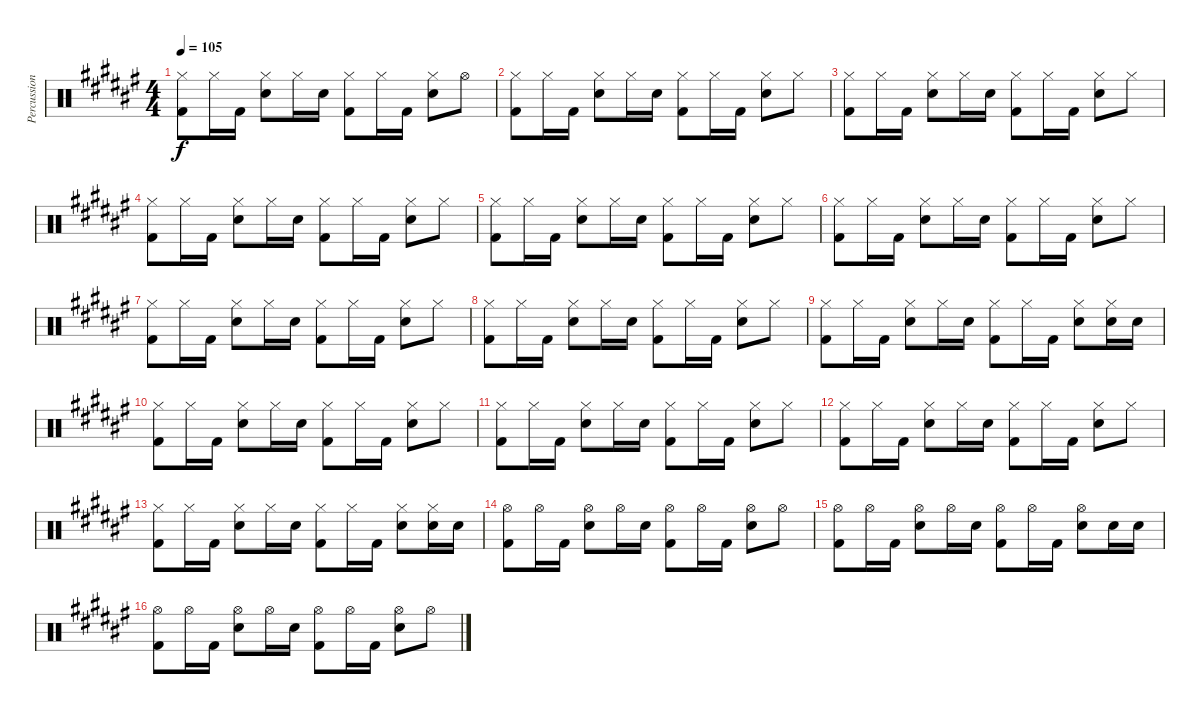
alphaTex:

\track ("Percussion" "Percussion") {instrument percussion}
\staff {score}
\articulation defaults
\ts (4 4)
\tempo 105
\clef neutral
\ks d#minor
("Kick (hit) 2" "Hi-Hat (closed)").8{dy f} "Hi-Hat (closed)".16 "Kick (hit) 2".16 ("Electric Snare (hit)" "Hi-Hat (closed)").8 "Hi-Hat (closed)".16 "Electric Snare (hit)".16 ("Kick (hit) 2" "Hi-Hat (closed)").8 "Hi-Hat (closed)".16 "Kick (hit) 2".16 ("Electric Snare (hit)" "Hi-Hat (closed)").8 "Hi-Hat (open)".8 |
("Kick (hit) 2" "Hi-Hat (closed)").8 "Hi-Hat (closed)".16 "Kick (hit) 2".16 ("Electric Snare (hit)" "Hi-Hat (closed)").8 "Hi-Hat (closed)".16 "Electric Snare (hit)".16 ("Kick (hit) 2" "Hi-Hat (closed)").8 "Hi-Hat (closed)".16 "Kick (hit) 2".16 ("Electric Snare (hit)" "Hi-Hat (closed)").8 "Hi-Hat (closed)".8 |
("Kick (hit) 2" "Hi-Hat (closed)").8 "Hi-Hat (closed)".16 "Kick (hit) 2".16 ("Electric Snare (hit)" "Hi-Hat (closed)").8 "Hi-Hat (closed)".16 "Electric Snare (hit)".16 ("Kick (hit) 2" "Hi-Hat (closed)").8 "Hi-Hat (closed)".16 "Kick (hit) 2".16 ("Electric Snare (hit)" "Hi-Hat (closed)").8 "Hi-Hat (closed)".8 |
("Kick (hit) 2" "Hi-Hat (closed)").8 "Hi-Hat (closed)".16 "Kick (hit) 2".16 ("Electric Snare (hit)" "Hi-Hat (closed)").8 "Hi-Hat (closed)".16 "Electric Snare (hit)".16 ("Kick (hit) 2" "Hi-Hat (closed)").8 "Hi-Hat (closed)".16 "Kick (hit) 2".16 ("Electric Snare (hit)" "Hi-Hat (closed)").8 "Hi-Hat (closed)".8 |
("Kick (hit) 2" "Hi-Hat (closed)").8 "Hi-Hat (closed)".16 "Kick (hit) 2".16 ("Electric Snare (hit)" "Hi-Hat (closed)").8 "Hi-Hat (closed)".16 "Electric Snare (hit)".16 ("Kick (hit) 2" "Hi-Hat (closed)").8 "Hi-Hat (closed)".16 "Kick (hit) 2".16 ("Electric Snare (hit)" "Hi-Hat (closed)").8 "Hi-Hat (closed)".8 |
("Kick (hit) 2" "Hi-Hat (closed)").8 "Hi-Hat (closed)".16 "Kick (hit) 2".16 ("Electric Snare (hit)" "Hi-Hat (closed)").8 "Hi-Hat (closed)".16 "Electric Snare (hit)".16 ("Kick (hit) 2" "Hi-Hat (closed)").8 "Hi-Hat (closed)".16 "Kick (hit) 2".16 ("Electric Snare (hit)" "Hi-Hat (closed)").8 "Hi-Hat (closed)".8 |
("Kick (hit) 2" "Hi-Hat (closed)").8 "Hi-Hat (closed)".16 "Kick (hit) 2".16 ("Electric Snare (hit)" "Hi-Hat (closed)").8 "Hi-Hat (closed)".16 "Electric Snare (hit)".16 ("Kick (hit) 2" "Hi-Hat (closed)").8 "Hi-Hat (closed)".16 "Kick (hit) 2".16 ("Electric Snare (hit)" "Hi-Hat (closed)").8 "Hi-Hat (closed)".8 |
("Kick (hit) 2" "Hi-Hat (closed)").8 "Hi-Hat (closed)".16 "Kick (hit) 2".16 ("Electric Snare (hit)" "Hi-Hat (closed)").8 "Hi-Hat (closed)".16 "Electric Snare (hit)".16 ("Kick (hit) 2" "Hi-Hat (closed)").8 "Hi-Hat (closed)".16 "Kick (hit) 2".16 ("Electric Snare (hit)" "Hi-Hat (closed)").8 "Hi-Hat (closed)".8 |
("Kick (hit) 2" "Hi-Hat (closed)").8 "Hi-Hat (closed)".16 "Kick (hit) 2".16 ("Electric Snare (hit)" "Hi-Hat (closed)").8 "Hi-Hat (closed)".16 "Electric Snare (hit)".16 ("Kick (hit) 2" "Hi-Hat (closed)").8 "Hi-Hat (closed)".16 "Kick (hit) 2".16 ("Electric Snare (hit)" "Hi-Hat (closed)").8 ("Electric Snare (hit)" "Hi-Hat (closed)").16 "Electric Snare (hit)".16 |
("Kick (hit) 2" "Hi-Hat (closed)").8 "Hi-Hat (closed)".16 "Kick (hit) 2".16 ("Electric Snare (hit)" "Hi-Hat (closed)").8 "Hi-Hat (closed)".16 "Electric Snare (hit)".16 ("Kick (hit) 2" "Hi-Hat (closed)").8 "Hi-Hat (closed)".16 "Kick (hit) 2".16 ("Electric Snare (hit)" "Hi-Hat (closed)").8 "Hi-Hat (closed)".8 |
("Kick (hit) 2" "Hi-Hat (closed)").8 "Hi-Hat (closed)".16 "Kick (hit) 2".16 ("Electric Snare (hit)" "Hi-Hat (closed)").8 "Hi-Hat (closed)".16 "Electric Snare (hit)".16 ("Kick (hit) 2" "Hi-Hat (closed)").8 "Hi-Hat (closed)".16 "Kick (hit) 2".16 ("Electric Snare (hit)" "Hi-Hat (closed)").8 "Hi-Hat (closed)".8 |
("Kick (hit) 2" "Hi-Hat (closed)").8 "Hi-Hat (closed)".16 "Kick (hit) 2".16 ("Electric Snare (hit)" "Hi-Hat (closed)").8 "Hi-Hat (closed)".16 "Electric Snare (hit)".16 ("Kick (hit) 2" "Hi-Hat (closed)").8 "Hi-Hat (closed)".16 "Kick (hit) 2".16 ("Electric Snare (hit)" "Hi-Hat (closed)").8 "Hi-Hat (closed)".8 |
("Kick (hit) 2" "Hi-Hat (closed)").8 "Hi-Hat (closed)".16 "Kick (hit) 2".16 ("Electric Snare (hit)" "Hi-Hat (closed)").8 "Hi-Hat (closed)".16 "Electric Snare (hit)".16 ("Kick (hit) 2" "Hi-Hat (closed)").8 "Hi-Hat (closed)".16 "Kick (hit) 2".16 ("Electric Snare (hit)" "Hi-Hat (closed)").8 ("Electric Snare (hit)" "Hi-Hat (closed)").16 "Electric Snare (hit)".16 |
("Kick (hit) 2" "Hi-Hat (open)").8 "Hi-Hat (open)".16 "Kick (hit) 2".16 ("Electric Snare (hit)" "Hi-Hat (open)").8 "Hi-Hat (open)".16 "Electric Snare (hit)".16 ("Kick (hit) 2" "Hi-Hat (open)").8 "Hi-Hat (open)".16 "Kick (hit) 2".16 ("Electric Snare (hit)" "Hi-Hat (open)").8 "Hi-Hat (open)".8 |
("Kick (hit) 2" "Hi-Hat (open)").8 "Hi-Hat (open)".16 "Kick (hit) 2".16 ("Electric Snare (hit)" "Hi-Hat (open)").8 "Hi-Hat (open)".16 "Electric Snare (hit)".16 ("Kick (hit) 2" "Hi-Hat (open)").8 "Hi-Hat (open)".16 "Kick (hit) 2".16 ("Electric Snare (hit)" "Hi-Hat (open)").8 "Electric Snare (hit)".16 "Electric Snare (hit)".16 |
("Kick (hit) 2" "Hi-Hat (open)").8 "Hi-Hat (open)".16 "Kick (hit) 2".16 ("Electric Snare (hit)" "Hi-Hat (open)").8 "Hi-Hat (open)".16 "Electric Snare (hit)".16 ("Kick (hit) 2" "Hi-Hat (open)").8 "Hi-Hat (open)".16 "Kick (hit) 2".16 ("Electric Snare (hit)" "Hi-Hat (open)").8 "Hi-Hat (open)".8
